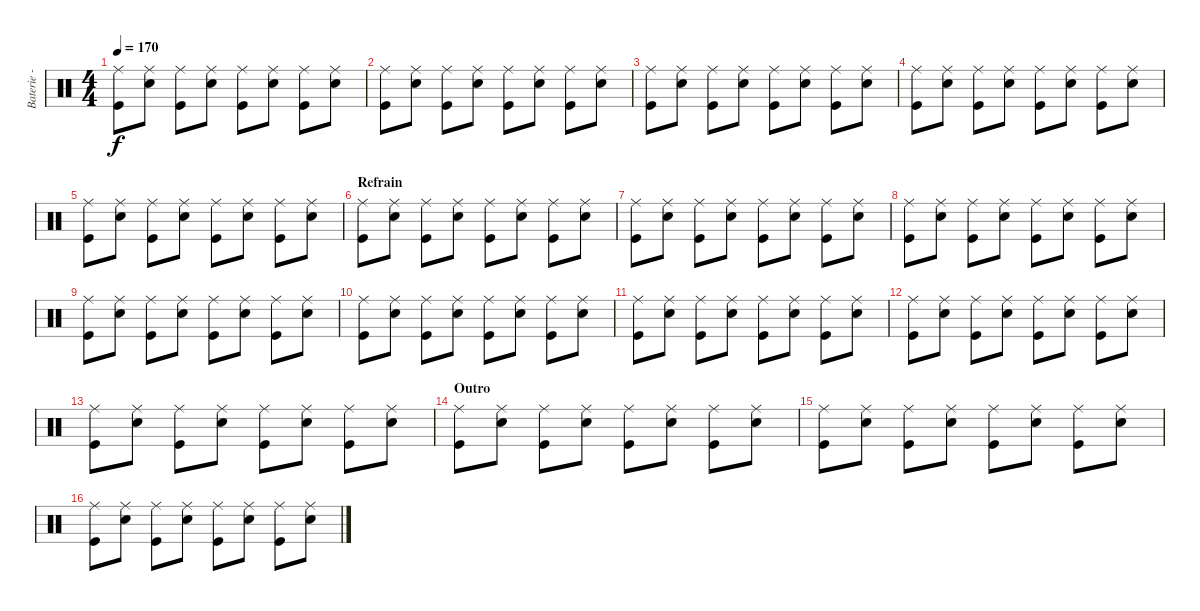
\track ("Baterie - Guillaume" "Baterie - ") {instrument percussion}
\staff {score}
\articulation defaults
\ts (4 4)
\tempo 170
\clef neutral
\ks c
("Ride (middle)" "Kick (hit)").8{dy f} ("Ride (middle)" "Electric Snare (hit)").8 ("Ride (middle)" "Kick (hit)").8 ("Ride (middle)" "Electric Snare (hit)").8 ("Ride (middle)" "Kick (hit)").8 ("Ride (middle)" "Electric Snare (hit)").8 ("Ride (middle)" "Kick (hit)").8 ("Ride (middle)" "Electric Snare (hit)").8 |
("Ride (middle)" "Kick (hit)").8 ("Ride (middle)" "Electric Snare (hit)").8 ("Ride (middle)" "Kick (hit)").8 ("Ride (middle)" "Electric Snare (hit)").8 ("Ride (middle)" "Kick (hit)").8 ("Ride (middle)" "Electric Snare (hit)").8 ("Ride (middle)" "Kick (hit)").8 ("Ride (middle)" "Electric Snare (hit)").8 |
("Ride (middle)" "Kick (hit)").8 ("Ride (middle)" "Electric Snare (hit)").8 ("Ride (middle)" "Kick (hit)").8 ("Ride (middle)" "Electric Snare (hit)").8 ("Ride (middle)" "Kick (hit)").8 ("Ride (middle)" "Electric Snare (hit)").8 ("Ride (middle)" "Kick (hit)").8 ("Ride (middle)" "Electric Snare (hit)").8 |
("Ride (middle)" "Kick (hit)").8 ("Ride (middle)" "Electric Snare (hit)").8 ("Ride (middle)" "Kick (hit)").8 ("Ride (middle)" "Electric Snare (hit)").8 ("Ride (middle)" "Kick (hit)").8 ("Ride (middle)" "Electric Snare (hit)").8 ("Ride (middle)" "Kick (hit)").8 ("Ride (middle)" "Electric Snare (hit)").8 |
("Ride (middle)" "Kick (hit)").8 ("Ride (middle)" "Electric Snare (hit)").8 ("Ride (middle)" "Kick (hit)").8 ("Ride (middle)" "Electric Snare (hit)").8 ("Ride (middle)" "Kick (hit)").8 ("Ride (middle)" "Electric Snare (hit)").8 ("Ride (middle)" "Kick (hit)").8 ("Ride (middle)" "Electric Snare (hit)").8 |
\section ("" "Refrain")
("Ride (middle)" "Kick (hit)").8 ("Ride (middle)" "Electric Snare (hit)").8 ("Ride (middle)" "Kick (hit)").8 ("Ride (middle)" "Electric Snare (hit)").8 ("Ride (middle)" "Kick (hit)").8 ("Ride (middle)" "Electric Snare (hit)").8 ("Ride (middle)" "Kick (hit)").8 ("Ride (middle)" "Electric Snare (hit)").8 |
("Ride (middle)" "Kick (hit)").8 ("Ride (middle)" "Electric Snare (hit)").8 ("Ride (middle)" "Kick (hit)").8 ("Ride (middle)" "Electric Snare (hit)").8 ("Ride (middle)" "Kick (hit)").8 ("Ride (middle)" "Electric Snare (hit)").8 ("Ride (middle)" "Kick (hit)").8 ("Ride (middle)" "Electric Snare (hit)").8 |
("Ride (middle)" "Kick (hit)").8 ("Ride (middle)" "Electric Snare (hit)").8 ("Ride (middle)" "Kick (hit)").8 ("Ride (middle)" "Electric Snare (hit)").8 ("Ride (middle)" "Kick (hit)").8 ("Ride (middle)" "Electric Snare (hit)").8 ("Ride (middle)" "Kick (hit)").8 ("Ride (middle)" "Electric Snare (hit)").8 |
("Ride (middle)" "Kick (hit)").8 ("Ride (middle)" "Electric Snare (hit)").8 ("Ride (middle)" "Kick (hit)").8 ("Ride (middle)" "Electric Snare (hit)").8 ("Ride (middle)" "Kick (hit)").8 ("Ride (middle)" "Electric Snare (hit)").8 ("Ride (middle)" "Kick (hit)").8 ("Ride (middle)" "Electric Snare (hit)").8 |
("Ride (middle)" "Kick (hit)").8 ("Ride (middle)" "Electric Snare (hit)").8 ("Ride (middle)" "Kick (hit)").8 ("Ride (middle)" "Electric Snare (hit)").8 ("Ride (middle)" "Kick (hit)").8 ("Ride (middle)" "Electric Snare (hit)").8 ("Ride (middle)" "Kick (hit)").8 ("Ride (middle)" "Electric Snare (hit)").8 |
("Ride (middle)" "Kick (hit)").8 ("Ride (middle)" "Electric Snare (hit)").8 ("Ride (middle)" "Kick (hit)").8 ("Ride (middle)" "Electric Snare (hit)").8 ("Ride (middle)" "Kick (hit)").8 ("Ride (middle)" "Electric Snare (hit)").8 ("Ride (middle)" "Kick (hit)").8 ("Ride (middle)" "Electric Snare (hit)").8 |
("Ride (middle)" "Kick (hit)").8 ("Ride (middle)" "Electric Snare (hit)").8 ("Ride (middle)" "Kick (hit)").8 ("Ride (middle)" "Electric Snare (hit)").8 ("Ride (middle)" "Kick (hit)").8 ("Ride (middle)" "Electric Snare (hit)").8 ("Ride (middle)" "Kick (hit)").8 ("Ride (middle)" "Electric Snare (hit)").8 |
("Ride (middle)" "Kick (hit)").8 ("Ride (middle)" "Electric Snare (hit)").8 ("Ride (middle)" "Kick (hit)").8 ("Ride (middle)" "Electric Snare (hit)").8 ("Ride (middle)" "Kick (hit)").8 ("Ride (middle)" "Electric Snare (hit)").8 ("Ride (middle)" "Kick (hit)").8 ("Ride (middle)" "Electric Snare (hit)").8 |
\section ("" "Outro")
("Ride (middle)" "Kick (hit)").8 ("Ride (middle)" "Electric Snare (hit)").8 ("Ride (middle)" "Kick (hit)").8 ("Ride (middle)" "Electric Snare (hit)").8 ("Ride (middle)" "Kick (hit)").8 ("Ride (middle)" "Electric Snare (hit)").8 ("Ride (middle)" "Kick (hit)").8 ("Ride (middle)" "Electric Snare (hit)").8 |
("Ride (middle)" "Kick (hit)").8 ("Ride (middle)" "Electric Snare (hit)").8 ("Ride (middle)" "Kick (hit)").8 ("Ride (middle)" "Electric Snare (hit)").8 ("Ride (middle)" "Kick (hit)").8 ("Ride (middle)" "Electric Snare (hit)").8 ("Ride (middle)" "Kick (hit)").8 ("Ride (middle)" "Electric Snare (hit)").8 |
("Ride (middle)" "Kick (hit)").8 ("Ride (middle)" "Electric Snare (hit)").8 ("Ride (middle)" "Kick (hit)").8 ("Ride (middle)" "Electric Snare (hit)").8 ("Ride (middle)" "Kick (hit)").8 ("Ride (middle)" "Electric Snare (hit)").8 ("Ride (middle)" "Kick (hit)").8 ("Ride (middle)" "Electric Snare (hit)").8
